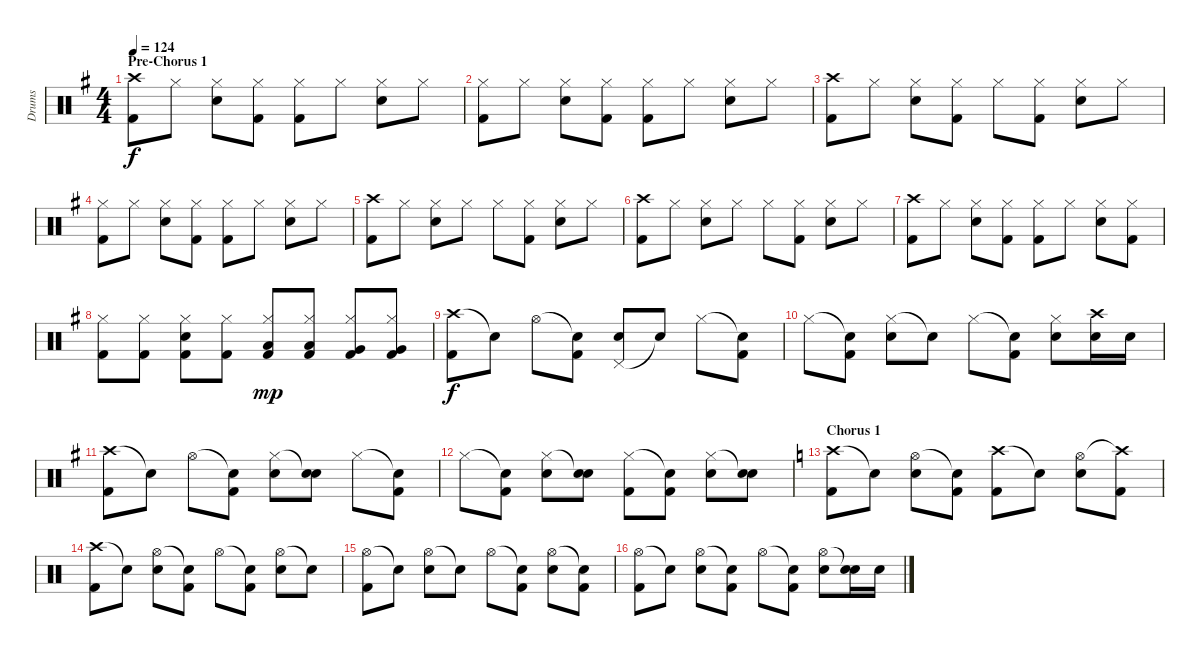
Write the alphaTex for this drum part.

\track ("Drums" "Drums") {instrument percussion}
\staff {score}
\articulation defaults
\ts (4 4)
\section ("" "Pre-Chorus 1")
\tempo 124
\clef neutral
\ks g
("Crash high (hit)" "Kick (hit) 2").8{dy f} "Hi-Hat (closed)".8 ("Hi-Hat (closed)" "Electric Snare (hit)").8 ("Hi-Hat (closed)" "Kick (hit) 2").8 ("Hi-Hat (closed)" "Kick (hit) 2").8 "Hi-Hat (closed)".8 ("Hi-Hat (closed)" "Electric Snare (hit)").8 "Hi-Hat (closed)".8 |
("Hi-Hat (closed)" "Kick (hit) 2").8 "Hi-Hat (closed)".8 ("Hi-Hat (closed)" "Electric Snare (hit)").8 ("Hi-Hat (closed)" "Kick (hit) 2").8 ("Hi-Hat (closed)" "Kick (hit) 2").8 "Hi-Hat (closed)".8 ("Hi-Hat (closed)" "Electric Snare (hit)").8 "Hi-Hat (closed)".8 |
("Crash high (hit)" "Kick (hit) 2").8 "Hi-Hat (closed)".8 ("Hi-Hat (closed)" "Electric Snare (hit)").8 ("Hi-Hat (closed)" "Kick (hit) 2").8 "Hi-Hat (closed)".8 ("Hi-Hat (closed)" "Kick (hit) 2").8 ("Hi-Hat (closed)" "Electric Snare (hit)").8 "Hi-Hat (closed)".8 |
("Hi-Hat (closed)" "Kick (hit) 2").8 "Hi-Hat (closed)".8 ("Hi-Hat (closed)" "Electric Snare (hit)").8 ("Hi-Hat (closed)" "Kick (hit) 2").8 ("Hi-Hat (closed)" "Kick (hit) 2").8 "Hi-Hat (closed)".8 ("Hi-Hat (closed)" "Electric Snare (hit)").8 "Hi-Hat (closed)".8 |
("Crash high (hit)" "Kick (hit) 2").8 "Hi-Hat (closed)".8 ("Hi-Hat (closed)" "Electric Snare (hit)").8 "Hi-Hat (closed)".8 "Hi-Hat (closed)".8 ("Hi-Hat (closed)" "Kick (hit) 2").8 ("Hi-Hat (closed)" "Electric Snare (hit)").8 "Hi-Hat (closed)".8 |
("Crash high (hit)" "Kick (hit) 2").8 "Hi-Hat (closed)".8 ("Hi-Hat (closed)" "Electric Snare (hit)").8 "Hi-Hat (closed)".8 "Hi-Hat (closed)".8 ("Hi-Hat (closed)" "Kick (hit) 2").8 ("Hi-Hat (closed)" "Electric Snare (hit)").8 "Hi-Hat (closed)".8 |
("Crash high (hit)" "Kick (hit) 2").8 "Hi-Hat (closed)".8 ("Hi-Hat (closed)" "Electric Snare (hit)").8 ("Hi-Hat (closed)" "Kick (hit) 2").8 ("Hi-Hat (closed)" "Kick (hit) 2").8 "Hi-Hat (closed)".8 ("Hi-Hat (closed)" "Electric Snare (hit)").8 ("Hi-Hat (closed)" "Kick (hit) 2").8 |
("Hi-Hat (closed)" "Kick (hit) 2").8 ("Hi-Hat (closed)" "Kick (hit) 2").8 ("Hi-Hat (closed)" "Electric Snare (hit)" "Kick (hit) 2").8 ("Hi-Hat (closed)" "Kick (hit) 2").8 ("Hi-Hat (closed)" "Low Tom (hit)" "Kick (hit) 2").8{dy mp} ("Hi-Hat (closed)" "Low Tom (hit)" "Kick (hit) 2").8 ("Hi-Hat (closed)" "Very Low Tom (hit)" "Kick (hit) 2").8 ("Hi-Hat (closed)" "Very Low Tom (hit)" "Kick (hit) 2").8 |
("Crash high (hit)" "Kick (hit) 2").8{dy f} "Snare (hit)"{t}.8 "Hi-Hat (open)".8 ("Snare (hit)"{t} "Kick (hit) 2").8 ("Pedal Hi-Hat (hit)" "Electric Snare (hit)").8 "Snare (hit)"{t}.8 "Hi-Hat (closed)".8 ("Snare (hit)"{t} "Kick (hit) 2").8 |
"Hi-Hat (closed)".8 ("Snare (hit)"{t} "Kick (hit) 2").8 ("Hi-Hat (closed)" "Electric Snare (hit)").8 "Snare (hit)"{t}.8 "Hi-Hat (closed)".8 ("Snare (hit)"{t} "Kick (hit) 2").8 ("Hi-Hat (closed)" "Electric Snare (hit)").8 ("Crash high (hit)" "Electric Snare (hit)").16 "Electric Snare (hit)".16 |
("Crash high (hit)" "Kick (hit) 2").8 "Snare (hit)"{t}.8 "Hi-Hat (open)".8 ("Snare (hit)"{t} "Kick (hit) 2").8 ("Hi-Hat (closed)" "Electric Snare (hit)").8 ("Snare (hit)"{t} "Electric Snare (hit)").8 "Hi-Hat (closed)".8 ("Snare (hit)"{t} "Kick (hit) 2").8 |
"Hi-Hat (closed)".8 ("Snare (hit)"{t} "Kick (hit) 2").8 ("Hi-Hat (closed)" "Electric Snare (hit)").8 ("Snare (hit)"{t} "Electric Snare (hit)").8 ("Hi-Hat (closed)" "Kick (hit) 2").8 ("Snare (hit)"{t} "Kick (hit) 2").8 ("Hi-Hat (closed)" "Electric Snare (hit)").8 ("Snare (hit)"{t} "Electric Snare (hit)").8 |
\section ("" "Chorus 1")
\ks aminor
("Crash high (hit)" "Kick (hit) 2").8 "Snare (hit)"{t}.8 ("Hi-Hat (open)" "Electric Snare (hit)").8 ("Snare (hit)"{t} "Kick (hit) 2").8 ("Crash high (hit)" "Kick (hit) 2").8 "Snare (hit)"{t}.8 ("Hi-Hat (open)" "Electric Snare (hit)").8 ("Crash high (hit)"{t} "Kick (hit) 2").8 |
("Crash high (hit)" "Kick (hit) 2").8 "Snare (hit)"{t}.8 ("Hi-Hat (open)" "Electric Snare (hit)").8 ("Snare (hit)"{t} "Kick (hit) 2").8 "Hi-Hat (open)".8 ("Snare (hit)"{t} "Kick (hit) 2").8 ("Hi-Hat (open)" "Electric Snare (hit)").8 "Snare (hit)"{t}.8 |
("Hi-Hat (open)" "Kick (hit) 2").8 "Snare (hit)"{t}.8 ("Hi-Hat (open)" "Electric Snare (hit)").8 "Snare (hit)"{t}.8 "Hi-Hat (open)".8 ("Snare (hit)"{t} "Kick (hit) 2").8 ("Hi-Hat (open)" "Electric Snare (hit)").8 ("Snare (hit)"{t} "Kick (hit) 2").8 |
("Hi-Hat (open)" "Kick (hit) 2").8 "Snare (hit)"{t}.8 ("Hi-Hat (open)" "Electric Snare (hit)").8 ("Snare (hit)"{t} "Kick (hit) 2").8 "Hi-Hat (open)".8 ("Snare (hit)"{t} "Kick (hit) 2").8 ("Hi-Hat (open)" "Electric Snare (hit)").8 ("Snare (hit)"{t} "Electric Snare (hit)").16 "Electric Snare (hit)".16
